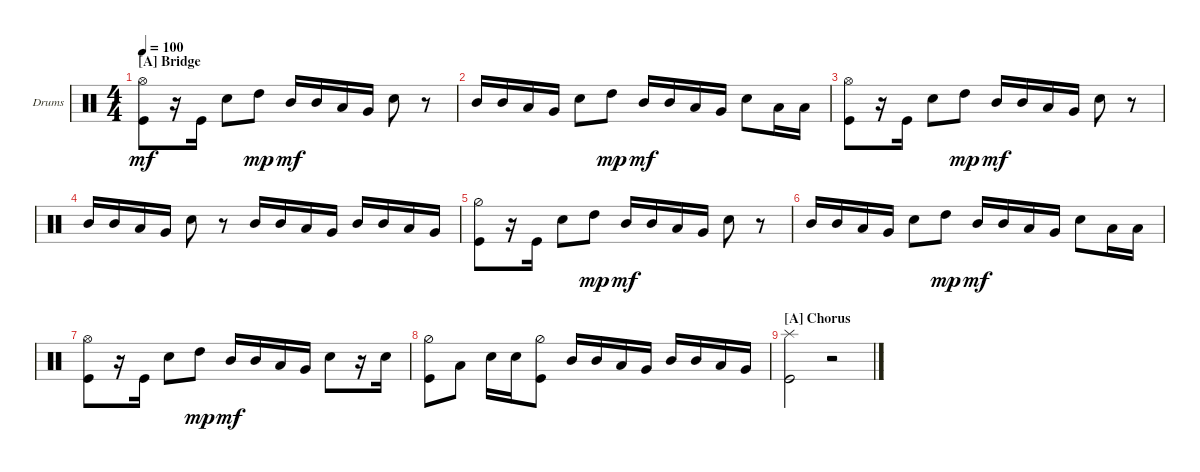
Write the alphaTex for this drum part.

\defaultSystemsLayout 4
\bracketExtendMode groupsimilarinstruments
\firstSystemTrackNameOrientation horizontal
\otherSystemsTrackNameOrientation horizontal
\track ("Drumkit" "Drums") {instrument percussion}
\staff {score}
\articulation defaults
\ts (4 4)
\section ("A" "Bridge")
\tempo 100
\clef neutral
\ks c
("Kick (hit)" "Hi-Hat (open)").8{dy mf} r.16 "Kick (hit)".16 "Snare (hit) 2".8 "High Tom (hit)".8{dy mp} "Mid Tom (hit)".16{dy mf} "Mid Tom (hit)".16 "Low Tom (hit)".16 "Very Low Tom (hit)".16 "Snare (hit) 2".8 r.8 |
"Mid Tom (hit)".16 "Mid Tom (hit)".16 "Low Tom (hit)".16 "Very Low Tom (hit)".16 "Snare (hit) 2".8 "High Tom (hit)".8{dy mp} "Mid Tom (hit)".16{dy mf} "Mid Tom (hit)".16 "Low Tom (hit)".16 "Very Low Tom (hit)".16 "Snare (hit) 2".8 "Low Tom (hit)".16 "Low Tom (hit)".16 |
("Kick (hit)" "Hi-Hat (open)").8 r.16 "Kick (hit)".16 "Snare (hit) 2".8 "High Tom (hit)".8{dy mp} "Mid Tom (hit)".16{dy mf} "Mid Tom (hit)".16 "Low Tom (hit)".16 "Very Low Tom (hit)".16 "Snare (hit) 2".8 r.8 |
"Mid Tom (hit)".16 "Mid Tom (hit)".16 "Low Tom (hit)".16 "Very Low Tom (hit)".16 "Snare (hit) 2".8 r.8 "Mid Tom (hit)".16 "Mid Tom (hit)".16 "Low Tom (hit)".16 "Very Low Tom (hit)".16 "Mid Tom (hit)".16 "Mid Tom (hit)".16 "Low Tom (hit)".16 "Very Low Tom (hit)".16 |
("Kick (hit)" "Hi-Hat (half)").8 r.16 "Kick (hit)".16 "Snare (hit) 2".8 "High Tom (hit)".8{dy mp} "Mid Tom (hit)".16{dy mf} "Mid Tom (hit)".16 "Low Tom (hit)".16 "Very Low Tom (hit)".16 "Snare (hit) 2".8 r.8 |
"Mid Tom (hit)".16 "Mid Tom (hit)".16 "Low Tom (hit)".16 "Very Low Tom (hit)".16 "Snare (hit) 2".8 "High Tom (hit)".8{dy mp} "Mid Tom (hit)".16{dy mf} "Mid Tom (hit)".16 "Low Tom (hit)".16 "Very Low Tom (hit)".16 "Snare (hit) 2".8 "Low Tom (hit)".16 "Low Tom (hit)".16 |
("Kick (hit)" "Hi-Hat (open)").8 r.16 "Kick (hit)".16 "Snare (hit) 2".8 "High Tom (hit)".8{dy mp} "Mid Tom (hit)".16{dy mf} "Mid Tom (hit)".16 "Low Tom (hit)".16 "Very Low Tom (hit)".16 "Snare (hit) 2".8 r.16 "Snare (hit) 2".16 |
("Kick (hit)" "Hi-Hat (half)").8 "Low Tom (hit)".8 "Snare (hit) 2".16 "Snare (hit) 2".16 ("Kick (hit)" "Hi-Hat (half)").8 "Mid Tom (hit)".16 "Mid Tom (hit)".16 "Low Tom (hit)".16 "Very Low Tom (hit)".16 "Mid Tom (hit)".16 "Mid Tom (hit)".16 "Low Tom (hit)".16 "Very Low Tom (hit)".16 |
\section ("A" "Chorus")
("Kick (hit)" "Splash (hit)").2 r.2
